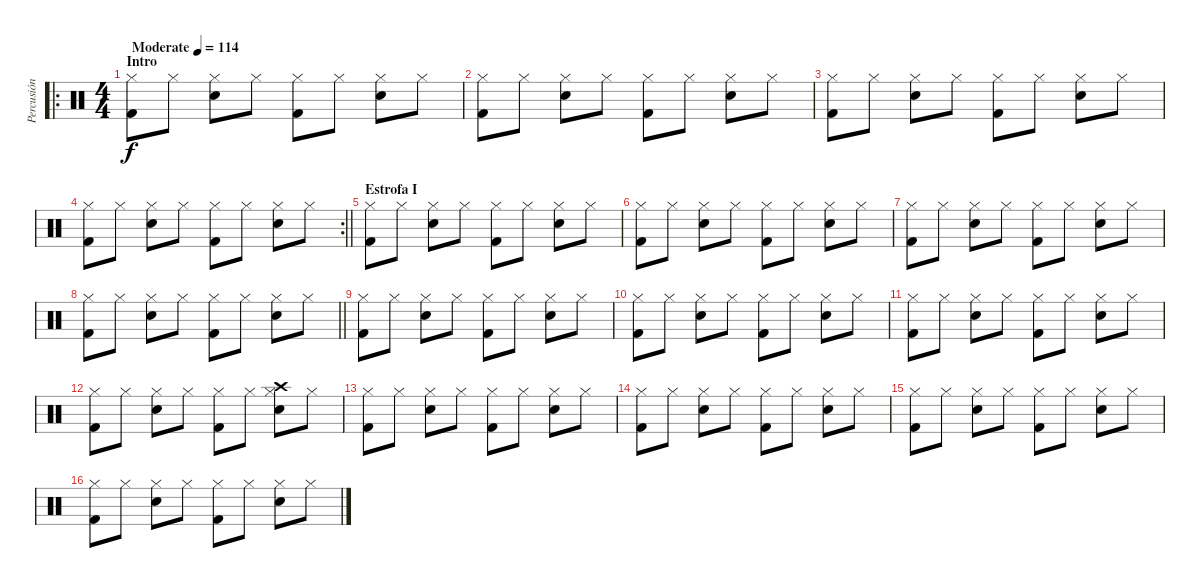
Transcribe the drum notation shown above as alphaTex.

\track ("Percusión" "Percusión") {instrument percussion}
\staff {score}
\articulation defaults
\ro
\ts (4 4)
\section ("" "Intro")
\tempo (114 "Moderate")
\clef neutral
\ks c
("Hi-Hat (closed)" "Kick (hit) 2").8{dy f} "Hi-Hat (closed)".8 ("Hi-Hat (closed)" "Electric Snare (hit)").8 "Hi-Hat (closed)".8 ("Hi-Hat (closed)" "Kick (hit) 2").8 "Hi-Hat (closed)".8 ("Hi-Hat (closed)" "Electric Snare (hit)").8 "Hi-Hat (closed)".8 |
("Hi-Hat (closed)" "Kick (hit) 2").8 "Hi-Hat (closed)".8 ("Hi-Hat (closed)" "Electric Snare (hit)").8 "Hi-Hat (closed)".8 ("Hi-Hat (closed)" "Kick (hit) 2").8 "Hi-Hat (closed)".8 ("Hi-Hat (closed)" "Electric Snare (hit)").8 "Hi-Hat (closed)".8 |
("Hi-Hat (closed)" "Kick (hit) 2").8 "Hi-Hat (closed)".8 ("Hi-Hat (closed)" "Electric Snare (hit)").8 "Hi-Hat (closed)".8 ("Hi-Hat (closed)" "Kick (hit) 2").8 "Hi-Hat (closed)".8 ("Hi-Hat (closed)" "Electric Snare (hit)").8 "Hi-Hat (closed)".8 |
\rc 2
\barLineRight lightlight
("Hi-Hat (closed)" "Kick (hit) 2").8 "Hi-Hat (closed)".8 ("Hi-Hat (closed)" "Electric Snare (hit)").8 "Hi-Hat (closed)".8 ("Hi-Hat (closed)" "Kick (hit) 2").8 "Hi-Hat (closed)".8 ("Hi-Hat (closed)" "Electric Snare (hit)").8 "Hi-Hat (closed)".8 |
\section ("" "Estrofa I")
("Hi-Hat (closed)" "Kick (hit) 2").8 "Hi-Hat (closed)".8 ("Hi-Hat (closed)" "Electric Snare (hit)").8 "Hi-Hat (closed)".8 ("Hi-Hat (closed)" "Kick (hit) 2").8 "Hi-Hat (closed)".8 ("Hi-Hat (closed)" "Electric Snare (hit)").8 "Hi-Hat (closed)".8 |
("Hi-Hat (closed)" "Kick (hit) 2").8 "Hi-Hat (closed)".8 ("Hi-Hat (closed)" "Electric Snare (hit)").8 "Hi-Hat (closed)".8 ("Hi-Hat (closed)" "Kick (hit) 2").8 "Hi-Hat (closed)".8 ("Hi-Hat (closed)" "Electric Snare (hit)").8 "Hi-Hat (closed)".8 |
("Hi-Hat (closed)" "Kick (hit) 2").8 "Hi-Hat (closed)".8 ("Hi-Hat (closed)" "Electric Snare (hit)").8 "Hi-Hat (closed)".8 ("Hi-Hat (closed)" "Kick (hit) 2").8 "Hi-Hat (closed)".8 ("Hi-Hat (closed)" "Electric Snare (hit)").8 "Hi-Hat (closed)".8 |
\barLineRight lightlight
("Hi-Hat (closed)" "Kick (hit) 2").8 "Hi-Hat (closed)".8 ("Hi-Hat (closed)" "Electric Snare (hit)").8 "Hi-Hat (closed)".8 ("Hi-Hat (closed)" "Kick (hit) 2").8 "Hi-Hat (closed)".8 ("Hi-Hat (closed)" "Electric Snare (hit)").8 "Hi-Hat (closed)".8 |
("Hi-Hat (closed)" "Kick (hit) 2").8 "Hi-Hat (closed)".8 ("Hi-Hat (closed)" "Electric Snare (hit)").8 "Hi-Hat (closed)".8 ("Hi-Hat (closed)" "Kick (hit) 2").8 "Hi-Hat (closed)".8 ("Hi-Hat (closed)" "Electric Snare (hit)").8 "Hi-Hat (closed)".8 |
("Hi-Hat (closed)" "Kick (hit) 2").8 "Hi-Hat (closed)".8 ("Hi-Hat (closed)" "Electric Snare (hit)").8 "Hi-Hat (closed)".8 ("Hi-Hat (closed)" "Kick (hit) 2").8 "Hi-Hat (closed)".8 ("Hi-Hat (closed)" "Electric Snare (hit)").8 "Hi-Hat (closed)".8 |
("Hi-Hat (closed)" "Kick (hit) 2").8 "Hi-Hat (closed)".8 ("Hi-Hat (closed)" "Electric Snare (hit)").8 "Hi-Hat (closed)".8 ("Hi-Hat (closed)" "Kick (hit) 2").8 "Hi-Hat (closed)".8 ("Hi-Hat (closed)" "Electric Snare (hit)").8 "Hi-Hat (closed)".8 |
("Hi-Hat (closed)" "Kick (hit) 2").8 "Hi-Hat (closed)".8 ("Hi-Hat (closed)" "Electric Snare (hit)").8 "Hi-Hat (closed)".8 ("Hi-Hat (closed)" "Kick (hit) 2").8 "Hi-Hat (closed)".8 ("Crash high (hit)" "Hi-Hat (closed)" "Electric Snare (hit)").8 "Hi-Hat (closed)".8 |
("Hi-Hat (closed)" "Kick (hit) 2").8 "Hi-Hat (closed)".8 ("Hi-Hat (closed)" "Electric Snare (hit)").8 "Hi-Hat (closed)".8 ("Hi-Hat (closed)" "Kick (hit) 2").8 "Hi-Hat (closed)".8 ("Hi-Hat (closed)" "Electric Snare (hit)").8 "Hi-Hat (closed)".8 |
("Hi-Hat (closed)" "Kick (hit) 2").8 "Hi-Hat (closed)".8 ("Hi-Hat (closed)" "Electric Snare (hit)").8 "Hi-Hat (closed)".8 ("Hi-Hat (closed)" "Kick (hit) 2").8 "Hi-Hat (closed)".8 ("Hi-Hat (closed)" "Electric Snare (hit)").8 "Hi-Hat (closed)".8 |
("Hi-Hat (closed)" "Kick (hit) 2").8 "Hi-Hat (closed)".8 ("Hi-Hat (closed)" "Electric Snare (hit)").8 "Hi-Hat (closed)".8 ("Hi-Hat (closed)" "Kick (hit) 2").8 "Hi-Hat (closed)".8 ("Hi-Hat (closed)" "Electric Snare (hit)").8 "Hi-Hat (closed)".8 |
("Hi-Hat (closed)" "Kick (hit) 2").8 "Hi-Hat (closed)".8 ("Hi-Hat (closed)" "Electric Snare (hit)").8 "Hi-Hat (closed)".8 ("Hi-Hat (closed)" "Kick (hit) 2").8 "Hi-Hat (closed)".8 ("Hi-Hat (closed)" "Electric Snare (hit)").8 "Hi-Hat (closed)".8
